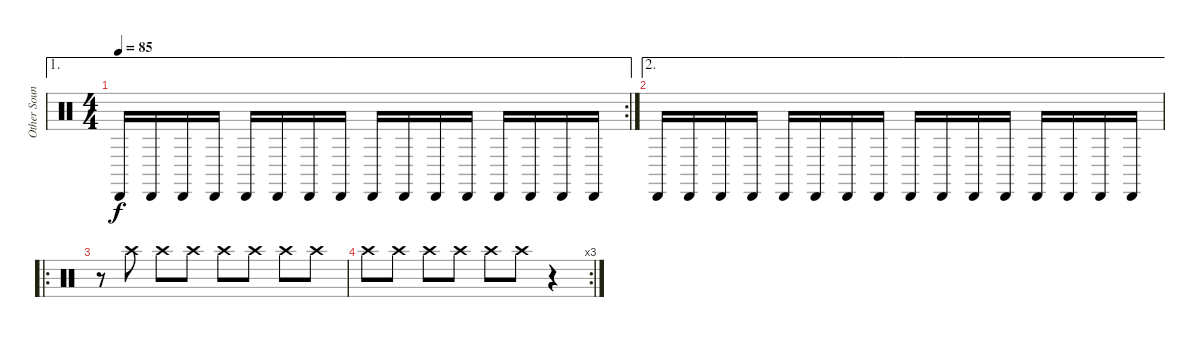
\track ("Other Sounds" "Other Soun") {instrument percussion}
\staff {score}
\articulation defaults
\ae 1
\rc 2
\ts (4 4)
\tempo 85
\clef neutral
\ks c "Cabasa (hit)".16{dy f} "Cabasa (hit)".16 "Cabasa (hit)".16 "Cabasa (hit)".16 "Cabasa (hit)".16 "Cabasa (hit)".16 "Cabasa (hit)".16 "Cabasa (hit)".16 "Cabasa (hit)".16 "Cabasa (hit)".16 "Cabasa (hit)".16 "Cabasa (hit)".16 "Cabasa (hit)".16 "Cabasa (hit)".16 "Cabasa (hit)".16 "Cabasa (hit)".16
|
\ae 2 "Cabasa (hit)".16 "Cabasa (hit)".16 "Cabasa (hit)".16 "Cabasa (hit)".16 "Cabasa (hit)".16 "Cabasa (hit)".16 "Cabasa (hit)".16 "Cabasa (hit)".16 "Cabasa (hit)".16 "Cabasa (hit)".16 "Cabasa (hit)".16 "Cabasa (hit)".16 "Cabasa (hit)".16 "Cabasa (hit)".16 "Cabasa (hit)".16 "Cabasa (hit)".16
|
\ro
r.8 "Crash high (hit)".8 "Crash high (hit)".8 "Crash high (hit)".8 "Crash high (hit)".8 "Crash high (hit)".8 "Crash high (hit)".8 "Crash high (hit)".8 |
\rc 3 "Crash high (hit)".8 "Crash high (hit)".8 "Crash high (hit)".8 "Crash high (hit)".8 "Crash high (hit)".8 "Crash high (hit)".8
r.4
